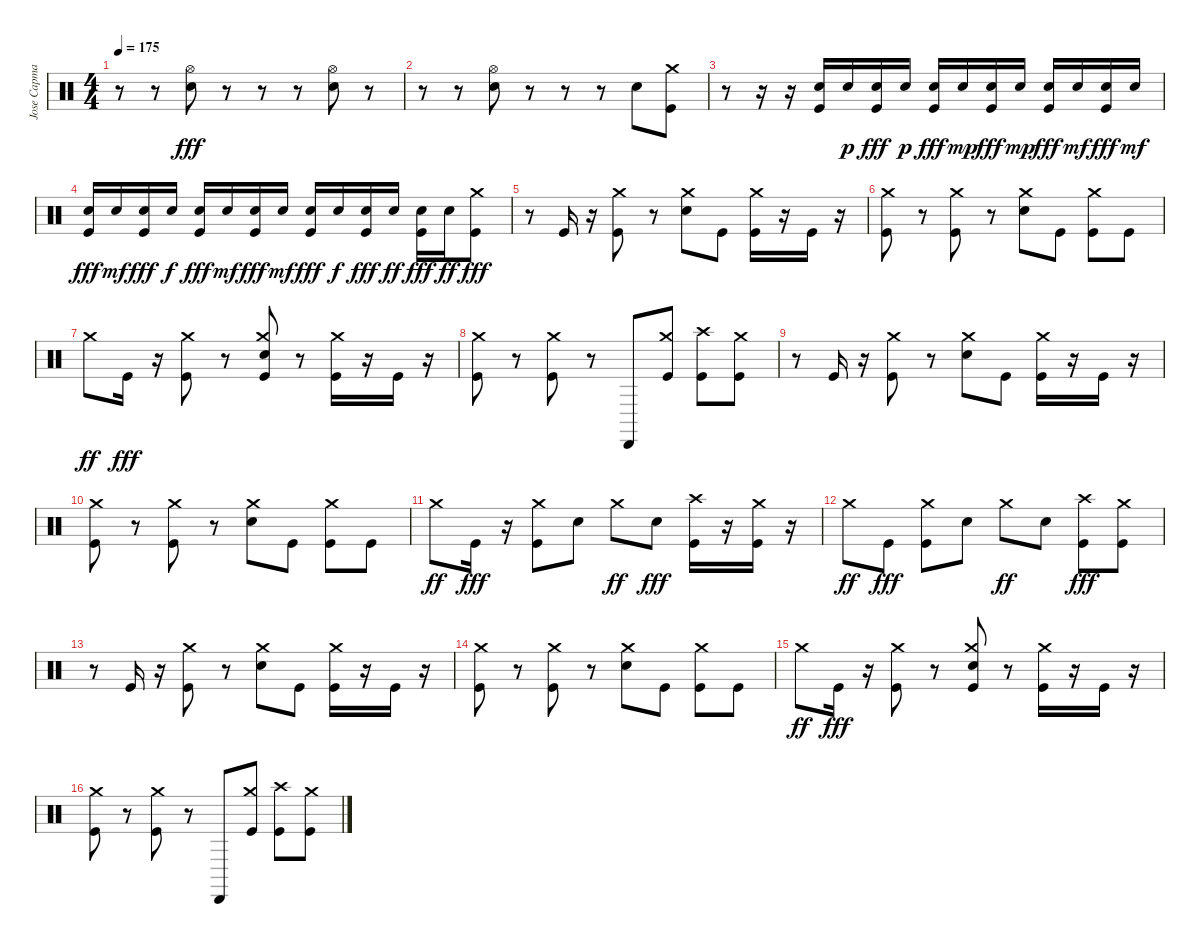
\track ("Jose Capmany" "Jose Capma") {instrument percussion}
\staff {score}
\articulation defaults
\ts (4 4)
\tempo 175
\clef neutral
\ks c
r.8{dy fff} r.8 ("Hi-Hat (open)" "Snare (hit) 2").8 r.8 r.8 r.8 ("Hi-Hat (open)" "Snare (hit) 2").8 r.8 |
r.8 r.8 ("Hi-Hat (open)" "Snare (hit) 2").8 r.8 r.8 r.8 "Snare (hit) 2".8 ("Crash medium (hit)" "Kick (hit)").8 |
r.8 r.16 r.16 ("Snare (hit) 2" "Kick (hit)").16 "Snare (hit) 2".16{dy p} ("Snare (hit) 2" "Kick (hit)").16{dy fff} "Snare (hit) 2".16{dy p} ("Snare (hit) 2" "Kick (hit)").16{dy fff} "Snare (hit) 2".16{dy mp} ("Snare (hit) 2" "Kick (hit)").16{dy fff} "Snare (hit) 2".16{dy mp} ("Snare (hit) 2" "Kick (hit)").16{dy fff} "Snare (hit) 2".16{dy mf} ("Snare (hit) 2" "Kick (hit)").16{dy fff} "Snare (hit) 2".16{dy mf} |
("Snare (hit) 2" "Kick (hit)").16{dy fff} "Snare (hit) 2".16{dy mf} ("Snare (hit) 2" "Kick (hit)").16{dy fff} "Snare (hit) 2".16{dy f} ("Snare (hit) 2" "Kick (hit)").16{dy fff} "Snare (hit) 2".16{dy mf} ("Snare (hit) 2" "Kick (hit)").16{dy fff} "Snare (hit) 2".16{dy mf} ("Snare (hit) 2" "Kick (hit)").16{dy fff} "Snare (hit) 2".16{dy f} ("Snare (hit) 2" "Kick (hit)").16{dy fff} "Snare (hit) 2".16{dy ff} ("Snare (hit) 2" "Kick (hit)").16{dy fff} "Snare (hit) 2".16{dy ff} ("Crash medium (hit)" "Kick (hit)").8{dy fff} |
r.8 "Kick (hit)".16 r.16 ("Crash medium (hit)" "Kick (hit)").8 r.8 ("Crash medium (hit)" "Snare (hit) 2").8 "Kick (hit)".8 ("Crash medium (hit)" "Kick (hit)").16 r.16 "Kick (hit)".16 r.16 |
("Crash medium (hit)" "Kick (hit)").8 r.8 ("Crash medium (hit)" "Kick (hit)").8 r.8 ("Crash medium (hit)" "Snare (hit) 2").8 "Kick (hit)".8 ("Crash medium (hit)" "Kick (hit)").8 "Kick (hit)".8 |
"Crash medium (hit)".8{dy ff} "Kick (hit)".16{dy fff} r.16 ("Crash medium (hit)" "Kick (hit)").8 r.8 ("Crash medium (hit)" "Snare (hit) 2" "Kick (hit)").8 r.8 ("Crash medium (hit)" "Kick (hit)").16 r.16 "Kick (hit)".16 r.16 |
("Crash medium (hit)" "Kick (hit)").8 r.8 ("Crash medium (hit)" "Kick (hit)").8 r.8 "Cabasa (hit)".8 ("Crash medium (hit)" "Kick (hit)").8 ("Crash high (hit)" "Kick (hit)").8 ("Crash medium (hit)" "Kick (hit)").8 |
r.8 "Kick (hit)".16 r.16 ("Crash medium (hit)" "Kick (hit)").8 r.8 ("Crash medium (hit)" "Snare (hit) 2").8 "Kick (hit)".8 ("Crash medium (hit)" "Kick (hit)").16 r.16 "Kick (hit)".16 r.16 |
("Crash medium (hit)" "Kick (hit)").8 r.8 ("Crash medium (hit)" "Kick (hit)").8 r.8 ("Crash medium (hit)" "Snare (hit) 2").8 "Kick (hit)".8 ("Crash medium (hit)" "Kick (hit)").8 "Kick (hit)".8 |
"Crash medium (hit)".8{dy ff} "Kick (hit)".16{dy fff} r.16 ("Crash medium (hit)" "Kick (hit)").8 "Snare (hit) 2".8 "Crash medium (hit)".8{dy ff} "Snare (hit) 2".8{dy fff} ("Crash high (hit)" "Kick (hit)").16 r.16 ("Crash medium (hit)" "Kick (hit)").16 r.16 |
"Crash medium (hit)".8{dy ff} "Kick (hit)".8{dy fff} ("Crash medium (hit)" "Kick (hit)").8 "Snare (hit) 2".8 "Crash medium (hit)".8{dy ff} "Snare (hit) 2".8 ("Crash high (hit)" "Kick (hit)").8{dy fff} ("Crash medium (hit)" "Kick (hit)").8 |
r.8 "Kick (hit)".16 r.16 ("Crash medium (hit)" "Kick (hit)").8 r.8 ("Crash medium (hit)" "Snare (hit) 2").8 "Kick (hit)".8 ("Crash medium (hit)" "Kick (hit)").16 r.16 "Kick (hit)".16 r.16 |
("Crash medium (hit)" "Kick (hit)").8 r.8 ("Crash medium (hit)" "Kick (hit)").8 r.8 ("Crash medium (hit)" "Snare (hit) 2").8 "Kick (hit)".8 ("Crash medium (hit)" "Kick (hit)").8 "Kick (hit)".8 |
"Crash medium (hit)".8{dy ff} "Kick (hit)".16{dy fff} r.16 ("Crash medium (hit)" "Kick (hit)").8 r.8 ("Crash medium (hit)" "Snare (hit) 2" "Kick (hit)").8 r.8 ("Crash medium (hit)" "Kick (hit)").16 r.16 "Kick (hit)".16 r.16 |
("Crash medium (hit)" "Kick (hit)").8 r.8 ("Crash medium (hit)" "Kick (hit)").8 r.8 "Cabasa (hit)".8 ("Crash medium (hit)" "Kick (hit)").8 ("Crash high (hit)" "Kick (hit)").8 ("Crash medium (hit)" "Kick (hit)").8
